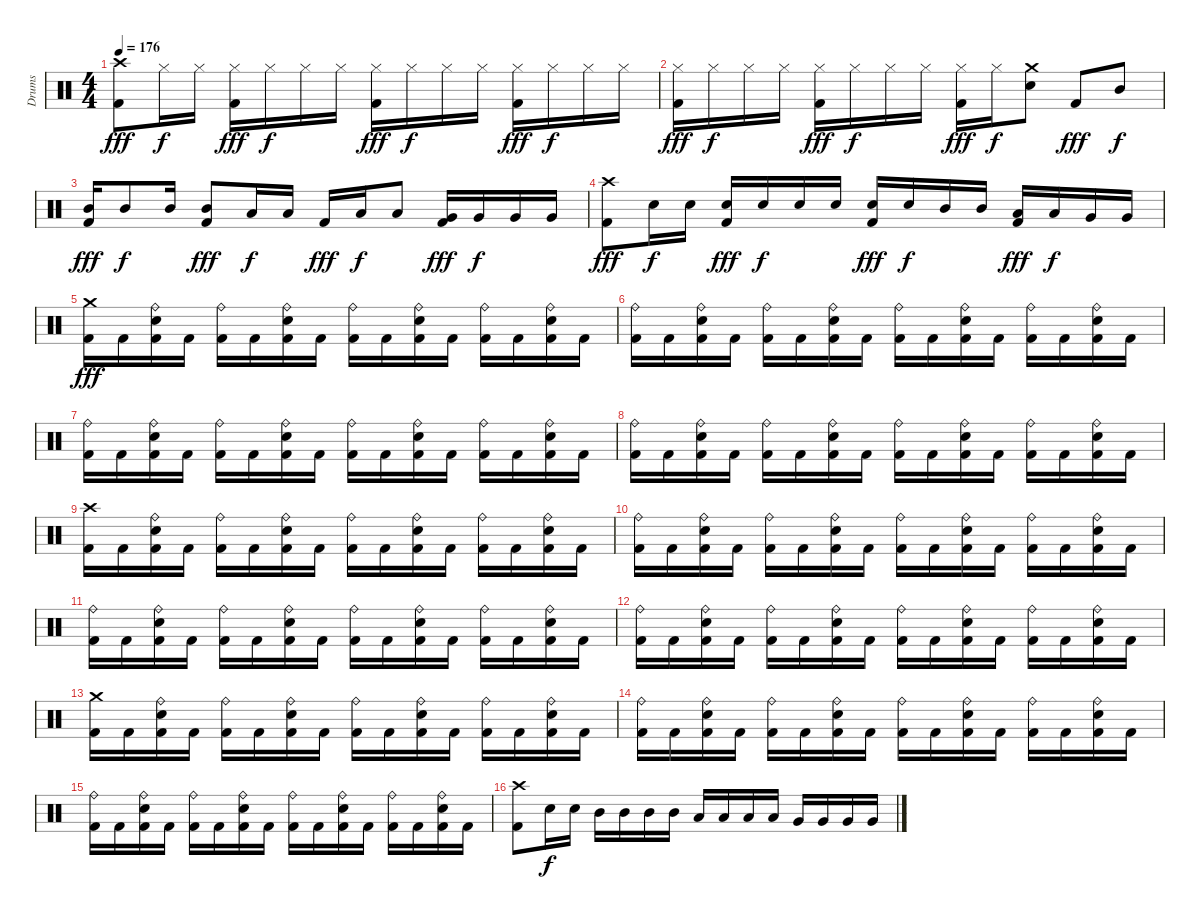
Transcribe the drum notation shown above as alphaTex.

\track ("Drums" "Drums") {instrument percussion}
\staff {score}
\articulation defaults
\ts (4 4)
\tempo 176
\clef neutral
\ks c
("Crash high (hit)" "Kick (hit) 2").8{dy fff} "Hi-Hat (closed)".16{dy f} "Hi-Hat (closed)".16 ("Hi-Hat (closed)" "Kick (hit) 2").16{dy fff} "Hi-Hat (closed)".16{dy f} "Hi-Hat (closed)".16 "Hi-Hat (closed)".16 ("Hi-Hat (closed)" "Kick (hit) 2").16{dy fff} "Hi-Hat (closed)".16{dy f} "Hi-Hat (closed)".16 "Hi-Hat (closed)".16 ("Hi-Hat (closed)" "Kick (hit) 2").16{dy fff} "Hi-Hat (closed)".16{dy f} "Hi-Hat (closed)".16 "Hi-Hat (closed)".16 |
("Hi-Hat (closed)" "Kick (hit) 2").16{dy fff} "Hi-Hat (closed)".16{dy f} "Hi-Hat (closed)".16 "Hi-Hat (closed)".16 ("Hi-Hat (closed)" "Kick (hit) 2").16{dy fff} "Hi-Hat (closed)".16{dy f} "Hi-Hat (closed)".16 "Hi-Hat (closed)".16 ("Hi-Hat (closed)" "Kick (hit) 2").16{dy fff} "Hi-Hat (closed)".16{dy f} ("Crash medium (hit)" "Snare (hit) 2").8 "Kick (hit) 2".8{dy fff} "Mid Tom (hit)".8{dy f} |
("Mid Tom (hit)" "Kick (hit) 2").16{dy fff} "Mid Tom (hit)".8{dy f} "Mid Tom (hit)".16 ("Mid Tom (hit)" "Kick (hit) 2").8{dy fff} "Low Tom (hit)".16{dy f} "Low Tom (hit)".16 "Kick (hit) 2".16{dy fff} "Low Tom (hit)".16{dy f} "Low Tom (hit)".8 ("Very Low Tom (hit)" "Kick (hit) 2").16{dy fff} "Very Low Tom (hit)".16{dy f} "Very Low Tom (hit)".16 "Very Low Tom (hit)".16 |
("Crash high (hit)" "Kick (hit) 2").8{dy fff} "Snare (hit) 2".16{dy f} "Snare (hit) 2".16 ("Snare (hit) 2" "Kick (hit) 2").16{dy fff} "Snare (hit) 2".16{dy f} "Snare (hit) 2".16 "Snare (hit) 2".16 ("Snare (hit) 2" "Kick (hit) 2").16{dy fff} "Snare (hit) 2".16{dy f} "Mid Tom (hit)".16 "Mid Tom (hit)".16 ("Low Tom (hit)" "Kick (hit) 2").16{dy fff} "Low Tom (hit)".16{dy f} "Very Low Tom (hit)".16 "Very Low Tom (hit)".16 |
("Crash medium (hit)" "Kick (hit) 2").16{dy fff} "Kick (hit) 2".16 ("Ride (bell)" "Snare (hit) 2" "Kick (hit) 2").16 "Kick (hit) 2".16 ("Ride (bell)" "Kick (hit) 2").16 "Kick (hit) 2".16 ("Ride (bell)" "Snare (hit) 2" "Kick (hit) 2").16 "Kick (hit) 2".16 ("Ride (bell)" "Kick (hit) 2").16 "Kick (hit) 2".16 ("Ride (bell)" "Snare (hit) 2" "Kick (hit) 2").16 "Kick (hit) 2".16 ("Ride (bell)" "Kick (hit) 2").16 "Kick (hit) 2".16 ("Ride (bell)" "Snare (hit) 2" "Kick (hit) 2").16 "Kick (hit) 2".16 |
("Ride (bell)" "Kick (hit) 2").16 "Kick (hit) 2".16 ("Ride (bell)" "Snare (hit) 2" "Kick (hit) 2").16 "Kick (hit) 2".16 ("Ride (bell)" "Kick (hit) 2").16 "Kick (hit) 2".16 ("Ride (bell)" "Snare (hit) 2" "Kick (hit) 2").16 "Kick (hit) 2".16 ("Ride (bell)" "Kick (hit) 2").16 "Kick (hit) 2".16 ("Ride (bell)" "Snare (hit) 2" "Kick (hit) 2").16 "Kick (hit) 2".16 ("Ride (bell)" "Kick (hit) 2").16 "Kick (hit) 2".16 ("Ride (bell)" "Snare (hit) 2" "Kick (hit) 2").16 "Kick (hit) 2".16 |
("Ride (bell)" "Kick (hit) 2").16 "Kick (hit) 2".16 ("Ride (bell)" "Snare (hit) 2" "Kick (hit) 2").16 "Kick (hit) 2".16 ("Ride (bell)" "Kick (hit) 2").16 "Kick (hit) 2".16 ("Ride (bell)" "Snare (hit) 2" "Kick (hit) 2").16 "Kick (hit) 2".16 ("Ride (bell)" "Kick (hit) 2").16 "Kick (hit) 2".16 ("Ride (bell)" "Snare (hit) 2" "Kick (hit) 2").16 "Kick (hit) 2".16 ("Ride (bell)" "Kick (hit) 2").16 "Kick (hit) 2".16 ("Ride (bell)" "Snare (hit) 2" "Kick (hit) 2").16 "Kick (hit) 2".16 |
("Ride (bell)" "Kick (hit) 2").16 "Kick (hit) 2".16 ("Ride (bell)" "Snare (hit) 2" "Kick (hit) 2").16 "Kick (hit) 2".16 ("Ride (bell)" "Kick (hit) 2").16 "Kick (hit) 2".16 ("Ride (bell)" "Snare (hit) 2" "Kick (hit) 2").16 "Kick (hit) 2".16 ("Ride (bell)" "Kick (hit) 2").16 "Kick (hit) 2".16 ("Ride (bell)" "Snare (hit) 2" "Kick (hit) 2").16 "Kick (hit) 2".16 ("Ride (bell)" "Kick (hit) 2").16 "Kick (hit) 2".16 ("Ride (bell)" "Snare (hit) 2" "Kick (hit) 2").16 "Kick (hit) 2".16 |
("Crash high (hit)" "Kick (hit) 2").16 "Kick (hit) 2".16 ("Ride (bell)" "Snare (hit) 2" "Kick (hit) 2").16 "Kick (hit) 2".16 ("Ride (bell)" "Kick (hit) 2").16 "Kick (hit) 2".16 ("Ride (bell)" "Snare (hit) 2" "Kick (hit) 2").16 "Kick (hit) 2".16 ("Ride (bell)" "Kick (hit) 2").16 "Kick (hit) 2".16 ("Ride (bell)" "Snare (hit) 2" "Kick (hit) 2").16 "Kick (hit) 2".16 ("Ride (bell)" "Kick (hit) 2").16 "Kick (hit) 2".16 ("Ride (bell)" "Snare (hit) 2" "Kick (hit) 2").16 "Kick (hit) 2".16 |
("Ride (bell)" "Kick (hit) 2").16 "Kick (hit) 2".16 ("Ride (bell)" "Snare (hit) 2" "Kick (hit) 2").16 "Kick (hit) 2".16 ("Ride (bell)" "Kick (hit) 2").16 "Kick (hit) 2".16 ("Ride (bell)" "Snare (hit) 2" "Kick (hit) 2").16 "Kick (hit) 2".16 ("Ride (bell)" "Kick (hit) 2").16 "Kick (hit) 2".16 ("Ride (bell)" "Snare (hit) 2" "Kick (hit) 2").16 "Kick (hit) 2".16 ("Ride (bell)" "Kick (hit) 2").16 "Kick (hit) 2".16 ("Ride (bell)" "Snare (hit) 2" "Kick (hit) 2").16 "Kick (hit) 2".16 |
("Ride (bell)" "Kick (hit) 2").16 "Kick (hit) 2".16 ("Ride (bell)" "Snare (hit) 2" "Kick (hit) 2").16 "Kick (hit) 2".16 ("Ride (bell)" "Kick (hit) 2").16 "Kick (hit) 2".16 ("Ride (bell)" "Snare (hit) 2" "Kick (hit) 2").16 "Kick (hit) 2".16 ("Ride (bell)" "Kick (hit) 2").16 "Kick (hit) 2".16 ("Ride (bell)" "Snare (hit) 2" "Kick (hit) 2").16 "Kick (hit) 2".16 ("Ride (bell)" "Kick (hit) 2").16 "Kick (hit) 2".16 ("Ride (bell)" "Snare (hit) 2" "Kick (hit) 2").16 "Kick (hit) 2".16 |
("Ride (bell)" "Kick (hit) 2").16 "Kick (hit) 2".16 ("Ride (bell)" "Snare (hit) 2" "Kick (hit) 2").16 "Kick (hit) 2".16 ("Ride (bell)" "Kick (hit) 2").16 "Kick (hit) 2".16 ("Ride (bell)" "Snare (hit) 2" "Kick (hit) 2").16 "Kick (hit) 2".16 ("Ride (bell)" "Kick (hit) 2").16 "Kick (hit) 2".16 ("Ride (bell)" "Snare (hit) 2" "Kick (hit) 2").16 "Kick (hit) 2".16 ("Ride (bell)" "Kick (hit) 2").16 "Kick (hit) 2".16 ("Ride (bell)" "Snare (hit) 2" "Kick (hit) 2").16 "Kick (hit) 2".16 |
("Crash medium (hit)" "Kick (hit) 2").16 "Kick (hit) 2".16 ("Ride (bell)" "Snare (hit) 2" "Kick (hit) 2").16 "Kick (hit) 2".16 ("Ride (bell)" "Kick (hit) 2").16 "Kick (hit) 2".16 ("Ride (bell)" "Snare (hit) 2" "Kick (hit) 2").16 "Kick (hit) 2".16 ("Ride (bell)" "Kick (hit) 2").16 "Kick (hit) 2".16 ("Ride (bell)" "Snare (hit) 2" "Kick (hit) 2").16 "Kick (hit) 2".16 ("Ride (bell)" "Kick (hit) 2").16 "Kick (hit) 2".16 ("Ride (bell)" "Snare (hit) 2" "Kick (hit) 2").16 "Kick (hit) 2".16 |
("Ride (bell)" "Kick (hit) 2").16 "Kick (hit) 2".16 ("Ride (bell)" "Snare (hit) 2" "Kick (hit) 2").16 "Kick (hit) 2".16 ("Ride (bell)" "Kick (hit) 2").16 "Kick (hit) 2".16 ("Ride (bell)" "Snare (hit) 2" "Kick (hit) 2").16 "Kick (hit) 2".16 ("Ride (bell)" "Kick (hit) 2").16 "Kick (hit) 2".16 ("Ride (bell)" "Snare (hit) 2" "Kick (hit) 2").16 "Kick (hit) 2".16 ("Ride (bell)" "Kick (hit) 2").16 "Kick (hit) 2".16 ("Ride (bell)" "Snare (hit) 2" "Kick (hit) 2").16 "Kick (hit) 2".16 |
("Ride (bell)" "Kick (hit) 2").16 "Kick (hit) 2".16 ("Ride (bell)" "Snare (hit) 2" "Kick (hit) 2").16 "Kick (hit) 2".16 ("Ride (bell)" "Kick (hit) 2").16 "Kick (hit) 2".16 ("Ride (bell)" "Snare (hit) 2" "Kick (hit) 2").16 "Kick (hit) 2".16 ("Ride (bell)" "Kick (hit) 2").16 "Kick (hit) 2".16 ("Ride (bell)" "Snare (hit) 2" "Kick (hit) 2").16 "Kick (hit) 2".16 ("Ride (bell)" "Kick (hit) 2").16 "Kick (hit) 2".16 ("Ride (bell)" "Snare (hit) 2" "Kick (hit) 2").16 "Kick (hit) 2".16 |
("Crash high (hit)" "Kick (hit) 2").8 "Snare (hit) 2".16{dy f} "Snare (hit) 2".16 "Mid Tom (hit)".16 "Mid Tom (hit)".16 "Mid Tom (hit)".16 "Mid Tom (hit)".16 "Low Tom (hit)".16 "Low Tom (hit)".16 "Low Tom (hit)".16 "Low Tom (hit)".16 "Very Low Tom (hit)".16 "Very Low Tom (hit)".16 "Very Low Tom (hit)".16 "Very Low Tom (hit)".16
